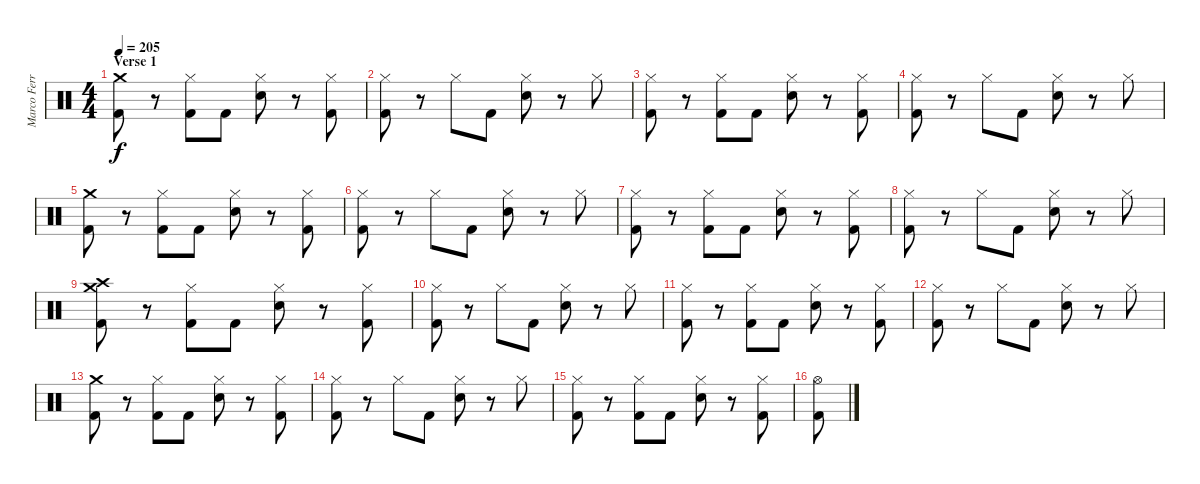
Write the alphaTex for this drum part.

\track ("Marco Ferro" "Marco Ferr") {instrument percussion}
\staff {score}
\articulation defaults
\ts (4 4)
\section ("" "Verse 1")
\tempo 205
\clef neutral
\ks c
("Crash medium (hit)" "Kick (hit) 2").8{dy f} r.8 ("Hi-Hat (closed)" "Kick (hit) 2").8 "Kick (hit) 2".8 ("Hi-Hat (closed)" "Electric Snare (hit)").8 r.8 ("Hi-Hat (closed)" "Kick (hit) 2").8 |
("Hi-Hat (closed)" "Kick (hit) 2").8 r.8 "Hi-Hat (closed)".8 "Kick (hit) 2".8 ("Hi-Hat (closed)" "Electric Snare (hit)").8 r.8 "Hi-Hat (closed)".8 |
("Hi-Hat (closed)" "Kick (hit) 2").8 r.8 ("Hi-Hat (closed)" "Kick (hit) 2").8 "Kick (hit) 2".8 ("Hi-Hat (closed)" "Electric Snare (hit)").8 r.8 ("Hi-Hat (closed)" "Kick (hit) 2").8 |
("Hi-Hat (closed)" "Kick (hit) 2").8 r.8 "Hi-Hat (closed)".8 "Kick (hit) 2".8 ("Hi-Hat (closed)" "Electric Snare (hit)").8 r.8 "Hi-Hat (closed)".8 |
("Crash medium (hit)" "Kick (hit) 2").8 r.8 ("Hi-Hat (closed)" "Kick (hit) 2").8 "Kick (hit) 2".8 ("Hi-Hat (closed)" "Electric Snare (hit)").8 r.8 ("Hi-Hat (closed)" "Kick (hit) 2").8 |
("Hi-Hat (closed)" "Kick (hit) 2").8 r.8 "Hi-Hat (closed)".8 "Kick (hit) 2".8 ("Hi-Hat (closed)" "Electric Snare (hit)").8 r.8 "Hi-Hat (closed)".8 |
("Hi-Hat (closed)" "Kick (hit) 2").8 r.8 ("Hi-Hat (closed)" "Kick (hit) 2").8 "Kick (hit) 2".8 ("Hi-Hat (closed)" "Electric Snare (hit)").8 r.8 ("Hi-Hat (closed)" "Kick (hit) 2").8 |
("Hi-Hat (closed)" "Kick (hit) 2").8 r.8 "Hi-Hat (closed)".8 "Kick (hit) 2".8 ("Hi-Hat (closed)" "Electric Snare (hit)").8 r.8 "Hi-Hat (closed)".8 |
("Crash medium (hit)" "Crash high (hit)" "Kick (hit) 2").8 r.8 ("Hi-Hat (closed)" "Kick (hit) 2").8 "Kick (hit) 2".8 ("Hi-Hat (closed)" "Electric Snare (hit)").8 r.8 ("Hi-Hat (closed)" "Kick (hit) 2").8 |
("Hi-Hat (closed)" "Kick (hit) 2").8 r.8 "Hi-Hat (closed)".8 "Kick (hit) 2".8 ("Hi-Hat (closed)" "Electric Snare (hit)").8 r.8 "Hi-Hat (closed)".8 |
("Hi-Hat (closed)" "Kick (hit) 2").8 r.8 ("Hi-Hat (closed)" "Kick (hit) 2").8 "Kick (hit) 2".8 ("Hi-Hat (closed)" "Electric Snare (hit)").8 r.8 ("Hi-Hat (closed)" "Kick (hit) 2").8 |
("Hi-Hat (closed)" "Kick (hit) 2").8 r.8 "Hi-Hat (closed)".8 "Kick (hit) 2".8 ("Hi-Hat (closed)" "Electric Snare (hit)").8 r.8 "Hi-Hat (closed)".8 |
("Crash medium (hit)" "Kick (hit) 2").8 r.8 ("Hi-Hat (closed)" "Kick (hit) 2").8 "Kick (hit) 2".8 ("Hi-Hat (closed)" "Electric Snare (hit)").8 r.8 ("Hi-Hat (closed)" "Kick (hit) 2").8 |
("Hi-Hat (closed)" "Kick (hit) 2").8 r.8 "Hi-Hat (closed)".8 "Kick (hit) 2".8 ("Hi-Hat (closed)" "Electric Snare (hit)").8 r.8 "Hi-Hat (closed)".8 |
("Hi-Hat (closed)" "Kick (hit) 2").8 r.8 ("Hi-Hat (closed)" "Kick (hit) 2").8 "Kick (hit) 2".8 ("Hi-Hat (closed)" "Electric Snare (hit)").8 r.8 ("Hi-Hat (closed)" "Kick (hit) 2").8 |
("Hi-Hat (open)" "Kick (hit) 2").8
